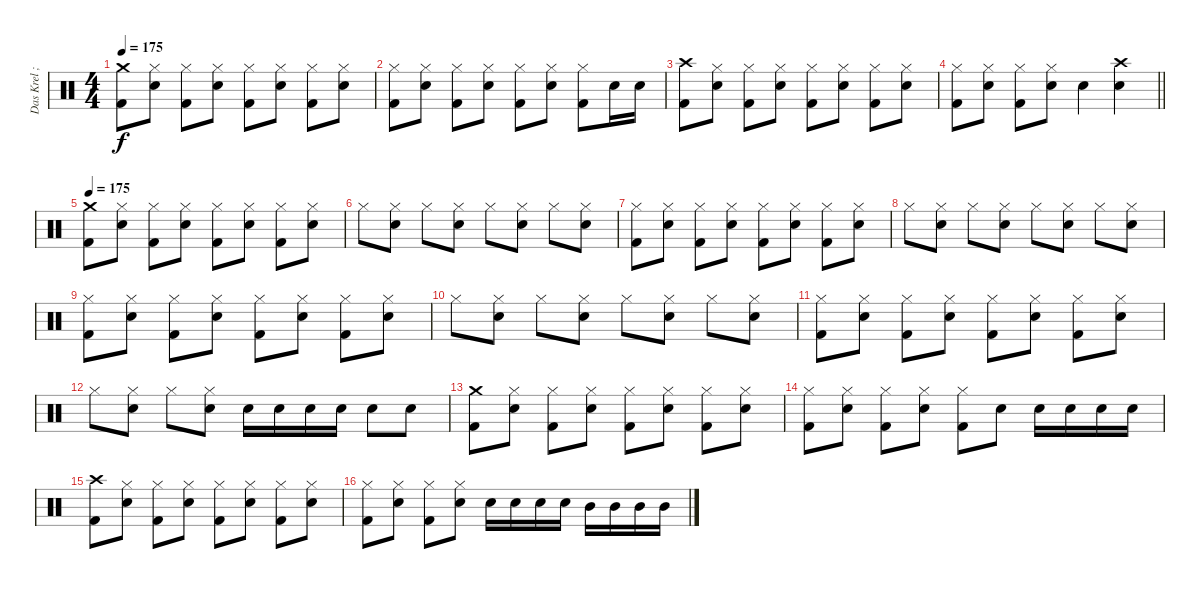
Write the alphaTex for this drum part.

\track ("Das Krel ;-)" "Das Krel ;") {instrument percussion}
\staff {score}
\articulation defaults
\ts (4 4)
\tempo 175
\clef neutral
\ks c
("Crash medium (hit)" "Kick (hit) 2").8{dy f} ("Hi-Hat (closed)" "Snare (hit) 2").8 ("Hi-Hat (closed)" "Kick (hit) 2").8 ("Hi-Hat (closed)" "Snare (hit) 2").8 ("Hi-Hat (closed)" "Kick (hit) 2").8 ("Hi-Hat (closed)" "Snare (hit) 2").8 ("Hi-Hat (closed)" "Kick (hit) 2").8 ("Hi-Hat (closed)" "Snare (hit) 2").8 |
("Hi-Hat (closed)" "Kick (hit) 2").8 ("Hi-Hat (closed)" "Snare (hit) 2").8 ("Hi-Hat (closed)" "Kick (hit) 2").8 ("Hi-Hat (closed)" "Snare (hit) 2").8 ("Hi-Hat (closed)" "Kick (hit) 2").8 ("Hi-Hat (closed)" "Snare (hit) 2").8 ("Hi-Hat (closed)" "Kick (hit) 2").8 "Snare (hit) 2".16 "Snare (hit) 2".16 |
("Crash high (hit)" "Kick (hit) 2").8 ("Hi-Hat (closed)" "Snare (hit) 2").8 ("Hi-Hat (closed)" "Kick (hit) 2").8 ("Hi-Hat (closed)" "Snare (hit) 2").8 ("Hi-Hat (closed)" "Kick (hit) 2").8 ("Hi-Hat (closed)" "Snare (hit) 2").8 ("Hi-Hat (closed)" "Kick (hit) 2").8 ("Hi-Hat (closed)" "Snare (hit) 2").8 |
\barLineRight lightlight
("Hi-Hat (closed)" "Kick (hit) 2").8 ("Hi-Hat (closed)" "Snare (hit) 2").8 ("Hi-Hat (closed)" "Kick (hit) 2").8 ("Hi-Hat (closed)" "Snare (hit) 2").8 "Snare (hit) 2".4 ("Crash high (hit)" "Snare (hit) 2").4 |
\tempo 175
("Crash medium (hit)" "Kick (hit) 2").8 ("Hi-Hat (closed)" "Snare (hit) 2").8 ("Hi-Hat (closed)" "Kick (hit) 2").8 ("Hi-Hat (closed)" "Snare (hit) 2").8 ("Hi-Hat (closed)" "Kick (hit) 2").8 ("Hi-Hat (closed)" "Snare (hit) 2").8 ("Hi-Hat (closed)" "Kick (hit) 2").8 ("Hi-Hat (closed)" "Snare (hit) 2").8 |
"Hi-Hat (closed)".8 ("Hi-Hat (closed)" "Snare (hit) 2").8 "Hi-Hat (closed)".8 ("Hi-Hat (closed)" "Snare (hit) 2").8 "Hi-Hat (closed)".8 ("Hi-Hat (closed)" "Snare (hit) 2").8 "Hi-Hat (closed)".8 ("Hi-Hat (closed)" "Snare (hit) 2").8 |
("Hi-Hat (closed)" "Kick (hit) 2").8 ("Hi-Hat (closed)" "Snare (hit) 2").8 ("Hi-Hat (closed)" "Kick (hit) 2").8 ("Hi-Hat (closed)" "Snare (hit) 2").8 ("Hi-Hat (closed)" "Kick (hit) 2").8 ("Hi-Hat (closed)" "Snare (hit) 2").8 ("Hi-Hat (closed)" "Kick (hit) 2").8 ("Hi-Hat (closed)" "Snare (hit) 2").8 |
"Hi-Hat (closed)".8 ("Hi-Hat (closed)" "Snare (hit) 2").8 "Hi-Hat (closed)".8 ("Hi-Hat (closed)" "Snare (hit) 2").8 "Hi-Hat (closed)".8 ("Hi-Hat (closed)" "Snare (hit) 2").8 "Hi-Hat (closed)".8 ("Hi-Hat (closed)" "Snare (hit) 2").8 |
("Hi-Hat (closed)" "Kick (hit) 2").8 ("Hi-Hat (closed)" "Snare (hit) 2").8 ("Hi-Hat (closed)" "Kick (hit) 2").8 ("Hi-Hat (closed)" "Snare (hit) 2").8 ("Hi-Hat (closed)" "Kick (hit) 2").8 ("Hi-Hat (closed)" "Snare (hit) 2").8 ("Hi-Hat (closed)" "Kick (hit) 2").8 ("Hi-Hat (closed)" "Snare (hit) 2").8 |
"Hi-Hat (closed)".8 ("Hi-Hat (closed)" "Snare (hit) 2").8 "Hi-Hat (closed)".8 ("Hi-Hat (closed)" "Snare (hit) 2").8 "Hi-Hat (closed)".8 ("Hi-Hat (closed)" "Snare (hit) 2").8 "Hi-Hat (closed)".8 ("Hi-Hat (closed)" "Snare (hit) 2").8 |
("Hi-Hat (closed)" "Kick (hit) 2").8 ("Hi-Hat (closed)" "Snare (hit) 2").8 ("Hi-Hat (closed)" "Kick (hit) 2").8 ("Hi-Hat (closed)" "Snare (hit) 2").8 ("Hi-Hat (closed)" "Kick (hit) 2").8 ("Hi-Hat (closed)" "Snare (hit) 2").8 ("Hi-Hat (closed)" "Kick (hit) 2").8 ("Hi-Hat (closed)" "Snare (hit) 2").8 |
"Hi-Hat (closed)".8 ("Hi-Hat (closed)" "Snare (hit) 2").8 "Hi-Hat (closed)".8 ("Hi-Hat (closed)" "Snare (hit) 2").8 "Snare (hit) 2".16 "Snare (hit) 2".16 "Snare (hit) 2".16 "Snare (hit) 2".16 "Snare (hit) 2".8 "Snare (hit) 2".8 |
("Crash medium (hit)" "Kick (hit) 2").8 ("Hi-Hat (closed)" "Snare (hit) 2").8 ("Hi-Hat (closed)" "Kick (hit) 2").8 ("Hi-Hat (closed)" "Snare (hit) 2").8 ("Hi-Hat (closed)" "Kick (hit) 2").8 ("Hi-Hat (closed)" "Snare (hit) 2").8 ("Hi-Hat (closed)" "Kick (hit) 2").8 ("Hi-Hat (closed)" "Snare (hit) 2").8 |
("Hi-Hat (closed)" "Kick (hit) 2").8 ("Hi-Hat (closed)" "Snare (hit) 2").8 ("Hi-Hat (closed)" "Kick (hit) 2").8 ("Hi-Hat (closed)" "Snare (hit) 2").8 ("Hi-Hat (closed)" "Kick (hit) 2").8 "Snare (hit) 2".8 "Snare (hit) 2".16 "Snare (hit) 2".16 "Snare (hit) 2".16 "Snare (hit) 2".16 |
("Crash high (hit)" "Kick (hit) 2").8 ("Hi-Hat (closed)" "Snare (hit) 2").8 ("Hi-Hat (closed)" "Kick (hit) 2").8 ("Hi-Hat (closed)" "Snare (hit) 2").8 ("Hi-Hat (closed)" "Kick (hit) 2").8 ("Hi-Hat (closed)" "Snare (hit) 2").8 ("Hi-Hat (closed)" "Kick (hit) 2").8 ("Hi-Hat (closed)" "Snare (hit) 2").8 |
("Hi-Hat (closed)" "Kick (hit) 2").8 ("Hi-Hat (closed)" "Snare (hit) 2").8 ("Hi-Hat (closed)" "Kick (hit) 2").8 ("Hi-Hat (closed)" "Snare (hit) 2").8 "Snare (hit) 2".16 "Snare (hit) 2".16 "Snare (hit) 2".16 "Snare (hit) 2".16 "Mid Tom (hit)".16 "Mid Tom (hit)".16 "Mid Tom (hit)".16 "Mid Tom (hit)".16
